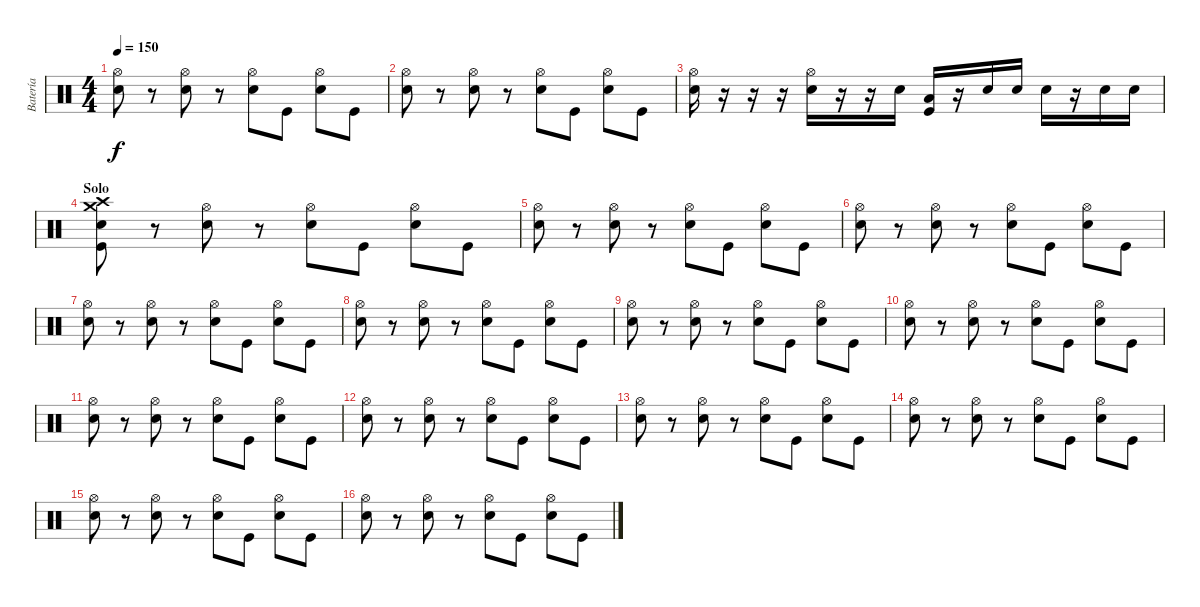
\track ("Batería" "Batería") {instrument percussion}
\staff {score}
\articulation defaults
\ts (4 4)
\tempo 150
\clef neutral
\ks c
("Hi-Hat (open)" "Snare (hit) 2").8{dy f} r.8 ("Hi-Hat (open)" "Snare (hit) 2").8 r.8 ("Hi-Hat (open)" "Snare (hit) 2").8 "Kick (hit)".8 ("Hi-Hat (open)" "Snare (hit) 2").8 "Kick (hit)".8 |
("Hi-Hat (open)" "Snare (hit) 2").8 r.8 ("Hi-Hat (open)" "Snare (hit) 2").8 r.8 ("Hi-Hat (open)" "Snare (hit) 2").8 "Kick (hit)".8 ("Hi-Hat (open)" "Snare (hit) 2").8 "Kick (hit)".8 |
("Hi-Hat (open)" "Snare (hit) 2").16 r.16 r.16 r.16 ("Hi-Hat (open)" "Snare (hit) 2").16 r.16 r.16 "Snare (hit) 2".16 ("Low Tom (hit)" "Kick (hit)").16 r.16 "Snare (hit) 2".16 "Snare (hit) 2".16 "Snare (hit) 2".16 r.16 "Snare (hit) 2".16 "Snare (hit) 2".16 |
\section ("" "Solo")
("Crash medium (hit)" "Snare (hit) 2" "Crash high (hit)" "Kick (hit)").8 r.8 ("Hi-Hat (open)" "Snare (hit) 2").8 r.8 ("Hi-Hat (open)" "Snare (hit) 2").8 "Kick (hit)".8 ("Hi-Hat (open)" "Snare (hit) 2").8 "Kick (hit)".8 |
("Hi-Hat (open)" "Snare (hit) 2").8 r.8 ("Hi-Hat (open)" "Snare (hit) 2").8 r.8 ("Hi-Hat (open)" "Snare (hit) 2").8 "Kick (hit)".8 ("Hi-Hat (open)" "Snare (hit) 2").8 "Kick (hit)".8 |
("Hi-Hat (open)" "Snare (hit) 2").8 r.8 ("Hi-Hat (open)" "Snare (hit) 2").8 r.8 ("Hi-Hat (open)" "Snare (hit) 2").8 "Kick (hit)".8 ("Hi-Hat (open)" "Snare (hit) 2").8 "Kick (hit)".8 |
("Hi-Hat (open)" "Snare (hit) 2").8 r.8 ("Hi-Hat (open)" "Snare (hit) 2").8 r.8 ("Hi-Hat (open)" "Snare (hit) 2").8 "Kick (hit)".8 ("Hi-Hat (open)" "Snare (hit) 2").8 "Kick (hit)".8 |
("Hi-Hat (open)" "Snare (hit) 2").8 r.8 ("Hi-Hat (open)" "Snare (hit) 2").8 r.8 ("Hi-Hat (open)" "Snare (hit) 2").8 "Kick (hit)".8 ("Hi-Hat (open)" "Snare (hit) 2").8 "Kick (hit)".8 |
("Hi-Hat (open)" "Snare (hit) 2").8 r.8 ("Hi-Hat (open)" "Snare (hit) 2").8 r.8 ("Hi-Hat (open)" "Snare (hit) 2").8 "Kick (hit)".8 ("Hi-Hat (open)" "Snare (hit) 2").8 "Kick (hit)".8 |
("Hi-Hat (open)" "Snare (hit) 2").8 r.8 ("Hi-Hat (open)" "Snare (hit) 2").8 r.8 ("Hi-Hat (open)" "Snare (hit) 2").8 "Kick (hit)".8 ("Hi-Hat (open)" "Snare (hit) 2").8 "Kick (hit)".8 |
("Hi-Hat (open)" "Snare (hit) 2").8 r.8 ("Hi-Hat (open)" "Snare (hit) 2").8 r.8 ("Hi-Hat (open)" "Snare (hit) 2").8 "Kick (hit)".8 ("Hi-Hat (open)" "Snare (hit) 2").8 "Kick (hit)".8 |
("Hi-Hat (open)" "Snare (hit) 2").8 r.8 ("Hi-Hat (open)" "Snare (hit) 2").8 r.8 ("Hi-Hat (open)" "Snare (hit) 2").8 "Kick (hit)".8 ("Hi-Hat (open)" "Snare (hit) 2").8 "Kick (hit)".8 |
("Hi-Hat (open)" "Snare (hit) 2").8 r.8 ("Hi-Hat (open)" "Snare (hit) 2").8 r.8 ("Hi-Hat (open)" "Snare (hit) 2").8 "Kick (hit)".8 ("Hi-Hat (open)" "Snare (hit) 2").8 "Kick (hit)".8 |
("Hi-Hat (open)" "Snare (hit) 2").8 r.8 ("Hi-Hat (open)" "Snare (hit) 2").8 r.8 ("Hi-Hat (open)" "Snare (hit) 2").8 "Kick (hit)".8 ("Hi-Hat (open)" "Snare (hit) 2").8 "Kick (hit)".8 |
("Hi-Hat (open)" "Snare (hit) 2").8 r.8 ("Hi-Hat (open)" "Snare (hit) 2").8 r.8 ("Hi-Hat (open)" "Snare (hit) 2").8 "Kick (hit)".8 ("Hi-Hat (open)" "Snare (hit) 2").8 "Kick (hit)".8 |
("Hi-Hat (open)" "Snare (hit) 2").8 r.8 ("Hi-Hat (open)" "Snare (hit) 2").8 r.8 ("Hi-Hat (open)" "Snare (hit) 2").8 "Kick (hit)".8 ("Hi-Hat (open)" "Snare (hit) 2").8 "Kick (hit)".8
